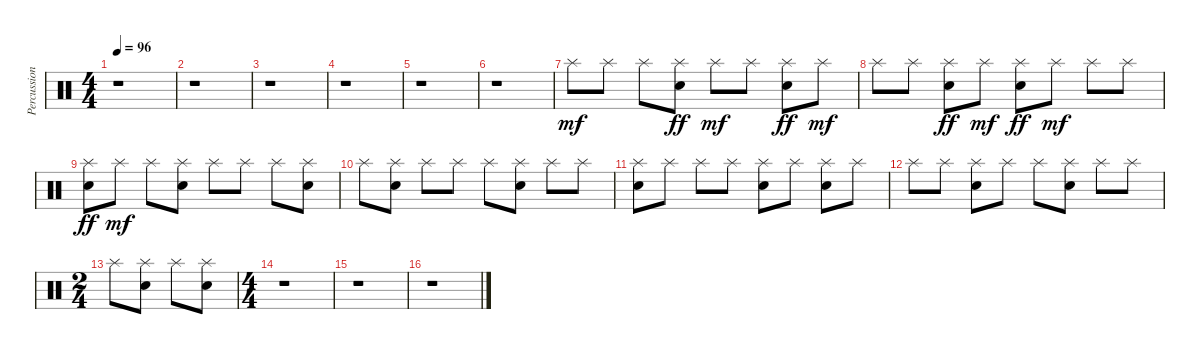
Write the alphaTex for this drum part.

\track ("Percussions" "Percussion") {instrument percussion}
\staff {score}
\articulation defaults
\ts (4 4)
\tempo 96
\clef neutral
\ks c
r.1{dy mf} |
r.1 |
r.1 |
r.1 |
r.1 |
r.1 |
"Splash (hit)".8 "Splash (hit)".8 "Splash (hit)".8 ("Splash (hit)" "Electric Snare (hit)").8{dy ff} "Splash (hit)".8{dy mf} "Splash (hit)".8 ("Splash (hit)" "Electric Snare (hit)").8{dy ff} "Splash (hit)".8{dy mf} |
"Splash (hit)".8 "Splash (hit)".8 ("Splash (hit)" "Electric Snare (hit)").8{dy ff} "Splash (hit)".8{dy mf} ("Splash (hit)" "Electric Snare (hit)").8{dy ff} "Splash (hit)".8{dy mf} "Splash (hit)".8 "Splash (hit)".8 |
("Splash (hit)" "Electric Snare (hit)").8{dy ff} "Splash (hit)".8{dy mf} "Splash (hit)".8 ("Splash (hit)" "Electric Snare (hit)").8 "Splash (hit)".8 "Splash (hit)".8 "Splash (hit)".8 ("Splash (hit)" "Electric Snare (hit)").8 |
"Splash (hit)".8 ("Splash (hit)" "Electric Snare (hit)").8 "Splash (hit)".8 "Splash (hit)".8 "Splash (hit)".8 ("Splash (hit)" "Electric Snare (hit)").8 "Splash (hit)".8 "Splash (hit)".8 |
("Splash (hit)" "Electric Snare (hit)").8 "Splash (hit)".8 "Splash (hit)".8 "Splash (hit)".8 ("Splash (hit)" "Electric Snare (hit)").8 "Splash (hit)".8 ("Splash (hit)" "Electric Snare (hit)").8 "Splash (hit)".8 |
"Splash (hit)".8 "Splash (hit)".8 ("Splash (hit)" "Electric Snare (hit)").8 "Splash (hit)".8 "Splash (hit)".8 ("Splash (hit)" "Electric Snare (hit)").8 "Splash (hit)".8 "Splash (hit)".8 |
\ts (2 4)
"Splash (hit)".8 ("Splash (hit)" "Electric Snare (hit)").8 "Splash (hit)".8 ("Splash (hit)" "Electric Snare (hit)").8 |
\ts (4 4)
r.1 |
r.1 |
r.1
